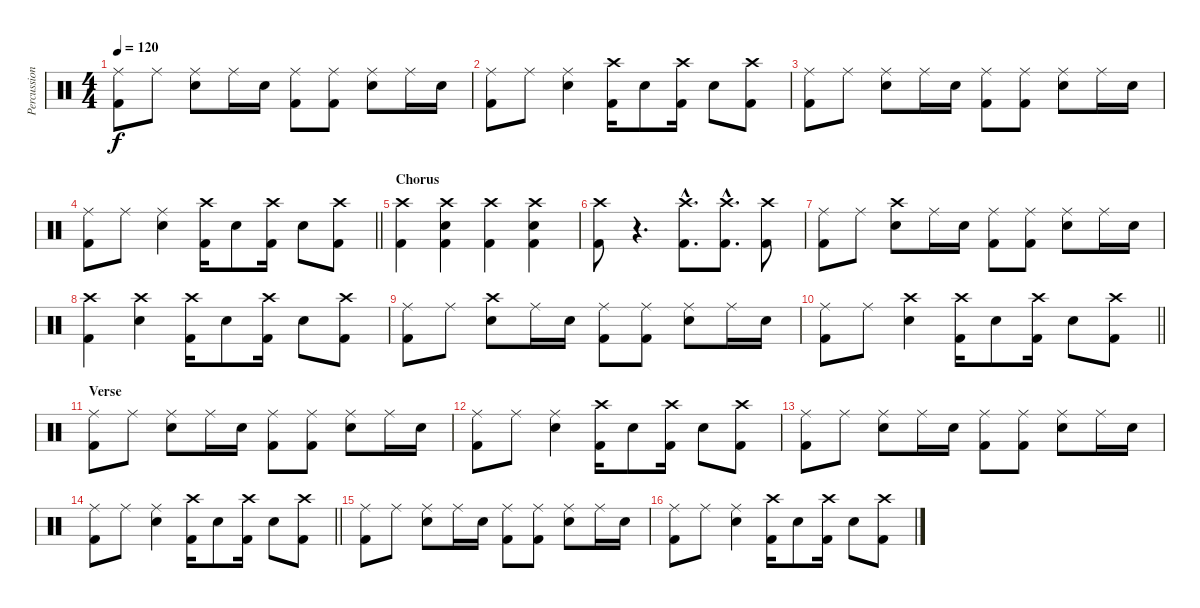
\track ("Percussion" "Percussion") {instrument percussion}
\staff {score}
\articulation defaults
\ts (4 4)
\tempo 120
\clef neutral
\ks c
("Ride (middle)" "Kick (hit) 2").8{dy f} "Ride (middle)".8 ("Ride (middle)" "Electric Snare (hit)").8 "Ride (middle)".16 "Electric Snare (hit)".16 ("Ride (middle)" "Kick (hit) 2").8 ("Ride (middle)" "Kick (hit) 2").8 ("Ride (middle)" "Electric Snare (hit)").8 "Ride (middle)".16 "Electric Snare (hit)".16 |
("Ride (middle)" "Kick (hit) 2").8 "Ride (middle)".8 ("Ride (middle)" "Electric Snare (hit)").4 ("Crash high (hit)" "Kick (hit) 2").16 "Electric Snare (hit)".8 ("Crash high (hit)" "Kick (hit) 2").16 "Electric Snare (hit)".8 ("Crash high (hit)" "Kick (hit) 2").8 |
("Ride (middle)" "Kick (hit) 2").8 "Ride (middle)".8 ("Ride (middle)" "Electric Snare (hit)").8 "Ride (middle)".16 "Electric Snare (hit)".16 ("Ride (middle)" "Kick (hit) 2").8 ("Ride (middle)" "Kick (hit) 2").8 ("Ride (middle)" "Electric Snare (hit)").8 "Ride (middle)".16 "Electric Snare (hit)".16 |
\barLineRight lightlight
("Ride (middle)" "Kick (hit) 2").8 "Ride (middle)".8 ("Ride (middle)" "Electric Snare (hit)").4 ("Crash high (hit)" "Kick (hit) 2").16 "Electric Snare (hit)".8 ("Crash high (hit)" "Kick (hit) 2").16 "Electric Snare (hit)".8 ("Crash high (hit)" "Kick (hit) 2").8 |
\section ("" "Chorus")
("Crash high (hit)" "Kick (hit) 2").4 ("Crash high (hit)" "Electric Snare (hit)" "Kick (hit) 2").4 ("Crash high (hit)" "Kick (hit) 2").4 ("Crash high (hit)" "Electric Snare (hit)" "Kick (hit) 2").4 |
("Crash high (hit)" "Kick (hit) 2").8 r.4{d} ("Crash high (hit)"{hac} "Kick (hit) 2"{hac}).8{d} ("Crash high (hit)"{hac} "Kick (hit) 2"{hac}).8{d} ("Crash high (hit)" "Kick (hit) 2").8 |
("Ride (middle)" "Kick (hit) 2").8 "Ride (middle)".8 ("Crash high (hit)" "Electric Snare (hit)").8 "Ride (middle)".16 "Electric Snare (hit)".16 ("Ride (middle)" "Kick (hit) 2").8 ("Ride (middle)" "Kick (hit) 2").8 ("Ride (middle)" "Electric Snare (hit)").8 "Ride (middle)".16 "Electric Snare (hit)".16 |
("Crash high (hit)" "Kick (hit) 2").4 ("Crash high (hit)" "Electric Snare (hit)").4 ("Crash high (hit)" "Kick (hit) 2").16 "Electric Snare (hit)".8 ("Crash high (hit)" "Kick (hit) 2").16 "Electric Snare (hit)".8 ("Crash high (hit)" "Kick (hit) 2").8 |
("Ride (middle)" "Kick (hit) 2").8 "Ride (middle)".8 ("Crash high (hit)" "Electric Snare (hit)").8 "Ride (middle)".16 "Electric Snare (hit)".16 ("Ride (middle)" "Kick (hit) 2").8 ("Ride (middle)" "Kick (hit) 2").8 ("Ride (middle)" "Electric Snare (hit)").8 "Ride (middle)".16 "Electric Snare (hit)".16 |
\barLineRight lightlight
("Ride (middle)" "Kick (hit) 2").8 "Ride (middle)".8 ("Crash high (hit)" "Electric Snare (hit)").4 ("Crash high (hit)" "Kick (hit) 2").16 "Electric Snare (hit)".8 ("Crash high (hit)" "Kick (hit) 2").16 "Electric Snare (hit)".8 ("Crash high (hit)" "Kick (hit) 2").8 |
\section ("" "Verse")
("Ride (middle)" "Kick (hit) 2").8 "Ride (middle)".8 ("Ride (middle)" "Electric Snare (hit)").8 "Ride (middle)".16 "Electric Snare (hit)".16 ("Ride (middle)" "Kick (hit) 2").8 ("Ride (middle)" "Kick (hit) 2").8 ("Ride (middle)" "Electric Snare (hit)").8 "Ride (middle)".16 "Electric Snare (hit)".16 |
("Ride (middle)" "Kick (hit) 2").8 "Ride (middle)".8 ("Ride (middle)" "Electric Snare (hit)").4 ("Crash high (hit)" "Kick (hit) 2").16 "Electric Snare (hit)".8 ("Crash high (hit)" "Kick (hit) 2").16 "Electric Snare (hit)".8 ("Crash high (hit)" "Kick (hit) 2").8 |
("Ride (middle)" "Kick (hit) 2").8 "Ride (middle)".8 ("Ride (middle)" "Electric Snare (hit)").8 "Ride (middle)".16 "Electric Snare (hit)".16 ("Ride (middle)" "Kick (hit) 2").8 ("Ride (middle)" "Kick (hit) 2").8 ("Ride (middle)" "Electric Snare (hit)").8 "Ride (middle)".16 "Electric Snare (hit)".16 |
\barLineRight lightlight
("Ride (middle)" "Kick (hit) 2").8 "Ride (middle)".8 ("Ride (middle)" "Electric Snare (hit)").4 ("Crash high (hit)" "Kick (hit) 2").16 "Electric Snare (hit)".8 ("Crash high (hit)" "Kick (hit) 2").16 "Electric Snare (hit)".8 ("Crash high (hit)" "Kick (hit) 2").8 |
("Ride (middle)" "Kick (hit) 2").8 "Ride (middle)".8 ("Ride (middle)" "Electric Snare (hit)").8 "Ride (middle)".16 "Electric Snare (hit)".16 ("Ride (middle)" "Kick (hit) 2").8 ("Ride (middle)" "Kick (hit) 2").8 ("Ride (middle)" "Electric Snare (hit)").8 "Ride (middle)".16 "Electric Snare (hit)".16 |
("Ride (middle)" "Kick (hit) 2").8 "Ride (middle)".8 ("Ride (middle)" "Electric Snare (hit)").4 ("Crash high (hit)" "Kick (hit) 2").16 "Electric Snare (hit)".8 ("Crash high (hit)" "Kick (hit) 2").16 "Electric Snare (hit)".8 ("Crash high (hit)" "Kick (hit) 2").8
